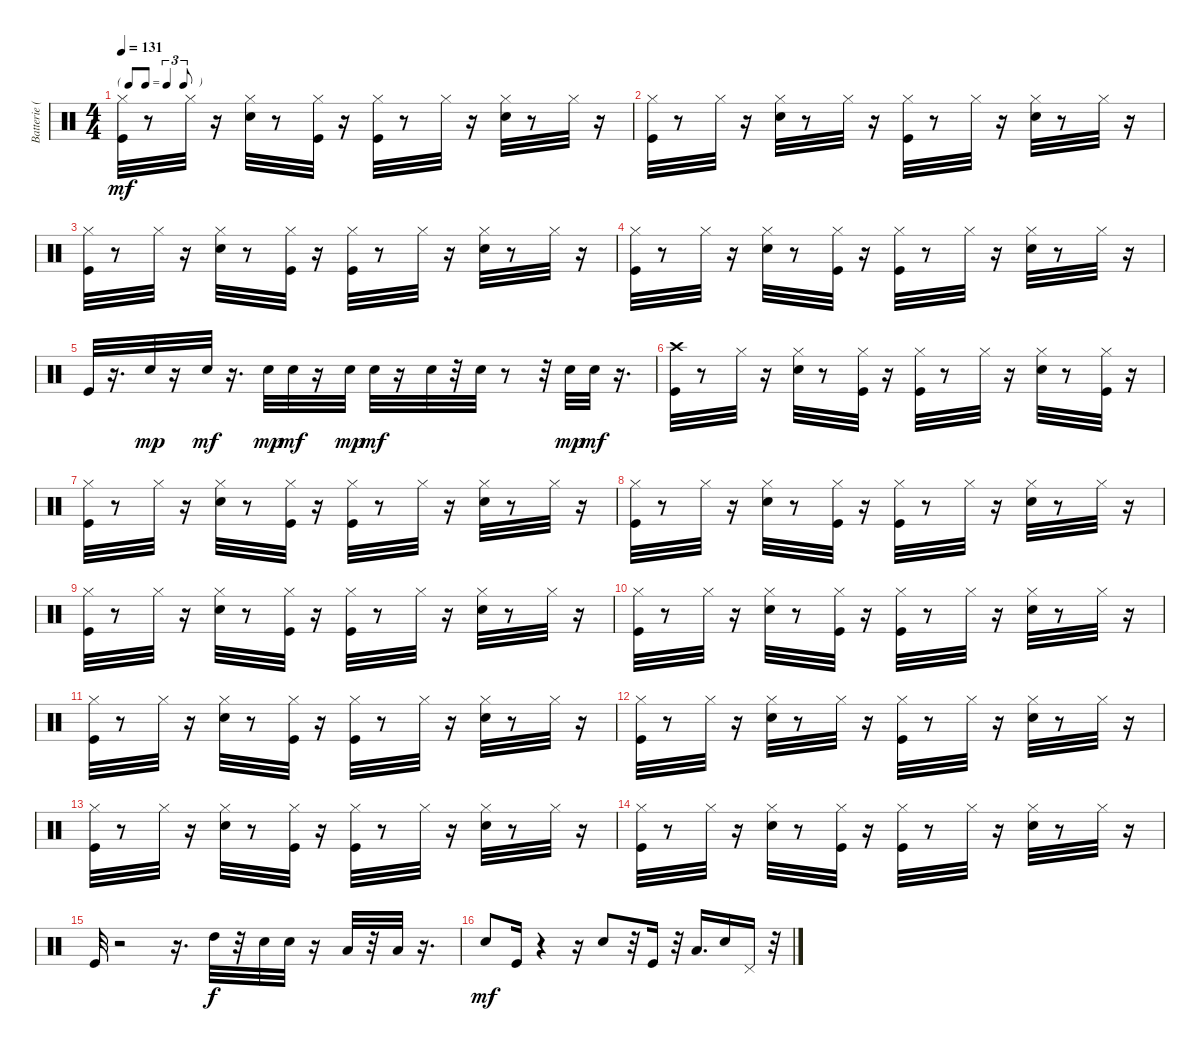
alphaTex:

\track ("Batterie (midi)" "Batterie (") {instrument percussion}
\staff {score}
\articulation defaults
\ts (4 4)
\tf triplet8th
\tempo 131
\clef neutral
\ks c
("Kick (hit)" "Hi-Hat (closed)").32{dy mf} r.8 "Hi-Hat (closed)".32 r.16 ("Electric Snare (hit)" "Hi-Hat (closed)").32 r.8 ("Kick (hit)" "Hi-Hat (closed)").32 r.16 ("Kick (hit)" "Hi-Hat (closed)").32 r.8 "Hi-Hat (closed)".32 r.16 ("Electric Snare (hit)" "Hi-Hat (closed)").32 r.8 "Hi-Hat (closed)".32 r.16 |
("Kick (hit)" "Hi-Hat (closed)").32 r.8 "Hi-Hat (closed)".32 r.16 ("Electric Snare (hit)" "Hi-Hat (closed)").32 r.8 "Hi-Hat (closed)".32 r.16 ("Kick (hit)" "Hi-Hat (closed)").32 r.8 "Hi-Hat (closed)".32 r.16 ("Electric Snare (hit)" "Hi-Hat (closed)").32 r.8 "Hi-Hat (closed)".32 r.16 |
("Kick (hit)" "Hi-Hat (closed)").32 r.8 "Hi-Hat (closed)".32 r.16 ("Electric Snare (hit)" "Hi-Hat (closed)").32 r.8 ("Kick (hit)" "Hi-Hat (closed)").32 r.16 ("Kick (hit)" "Hi-Hat (closed)").32 r.8 "Hi-Hat (closed)".32 r.16 ("Electric Snare (hit)" "Hi-Hat (closed)").32 r.8 "Hi-Hat (closed)".32 r.16 |
("Kick (hit)" "Hi-Hat (closed)").32 r.8 "Hi-Hat (closed)".32 r.16 ("Electric Snare (hit)" "Hi-Hat (closed)").32 r.8 ("Kick (hit)" "Hi-Hat (closed)").32 r.16 ("Kick (hit)" "Hi-Hat (closed)").32 r.8 "Hi-Hat (closed)".32 r.16 ("Electric Snare (hit)" "Hi-Hat (closed)").32 r.8 "Hi-Hat (closed)".32 r.16 |
"Kick (hit)".32 r.16{d} "Snare (hit) 2".32{dy mp} r.16 "Snare (hit) 2".32{dy mf} r.16{d} "Snare (hit) 2".32{dy mp} "Snare (hit) 2".32{dy mf} r.16 "Snare (hit) 2".32{dy mp} "Snare (hit) 2".32{dy mf} r.16 "Snare (hit) 2".32 r.32 "Snare (hit) 2".32 r.8 r.32 "Snare (hit) 2".32{dy mp} "Snare (hit) 2".32{dy mf} r.16{d} |
("Kick (hit)" "Crash high (hit)").32 r.8 "Hi-Hat (closed)".32 r.16 ("Electric Snare (hit)" "Hi-Hat (closed)").32 r.8 ("Kick (hit)" "Hi-Hat (closed)").32 r.16 ("Kick (hit)" "Hi-Hat (closed)").32 r.8 "Hi-Hat (closed)".32 r.16 ("Electric Snare (hit)" "Hi-Hat (closed)").32 r.8 ("Kick (hit)" "Hi-Hat (closed)").32 r.16 |
("Kick (hit)" "Hi-Hat (closed)").32 r.8 "Hi-Hat (closed)".32 r.16 ("Electric Snare (hit)" "Hi-Hat (closed)").32 r.8 ("Kick (hit)" "Hi-Hat (closed)").32 r.16 ("Kick (hit)" "Hi-Hat (closed)").32 r.8 "Hi-Hat (closed)".32 r.16 ("Electric Snare (hit)" "Hi-Hat (closed)").32 r.8 "Hi-Hat (closed)".32 r.16 |
("Kick (hit)" "Hi-Hat (closed)").32 r.8 "Hi-Hat (closed)".32 r.16 ("Electric Snare (hit)" "Hi-Hat (closed)").32 r.8 ("Kick (hit)" "Hi-Hat (closed)").32 r.16 ("Kick (hit)" "Hi-Hat (closed)").32 r.8 "Hi-Hat (closed)".32 r.16 ("Electric Snare (hit)" "Hi-Hat (closed)").32 r.8 "Hi-Hat (closed)".32 r.16 |
("Kick (hit)" "Hi-Hat (closed)").32 r.8 "Hi-Hat (closed)".32 r.16 ("Electric Snare (hit)" "Hi-Hat (closed)").32 r.8 ("Kick (hit)" "Hi-Hat (closed)").32 r.16 ("Kick (hit)" "Hi-Hat (closed)").32 r.8 "Hi-Hat (closed)".32 r.16 ("Electric Snare (hit)" "Hi-Hat (closed)").32 r.8 "Hi-Hat (closed)".32 r.16 |
("Kick (hit)" "Hi-Hat (closed)").32 r.8 "Hi-Hat (closed)".32 r.16 ("Electric Snare (hit)" "Hi-Hat (closed)").32 r.8 ("Kick (hit)" "Hi-Hat (closed)").32 r.16 ("Kick (hit)" "Hi-Hat (closed)").32 r.8 "Hi-Hat (closed)".32 r.16 ("Electric Snare (hit)" "Hi-Hat (closed)").32 r.8 "Hi-Hat (closed)".32 r.16 |
("Kick (hit)" "Hi-Hat (closed)").32 r.8 "Hi-Hat (closed)".32 r.16 ("Electric Snare (hit)" "Hi-Hat (closed)").32 r.8 ("Kick (hit)" "Hi-Hat (closed)").32 r.16 ("Kick (hit)" "Hi-Hat (closed)").32 r.8 "Hi-Hat (closed)".32 r.16 ("Electric Snare (hit)" "Hi-Hat (closed)").32 r.8 "Hi-Hat (closed)".32 r.16 |
("Kick (hit)" "Hi-Hat (closed)").32 r.8 "Hi-Hat (closed)".32 r.16 ("Electric Snare (hit)" "Hi-Hat (closed)").32 r.8 "Hi-Hat (closed)".32 r.16 ("Kick (hit)" "Hi-Hat (closed)").32 r.8 "Hi-Hat (closed)".32 r.16 ("Electric Snare (hit)" "Hi-Hat (closed)").32 r.8 "Hi-Hat (closed)".32 r.16 |
("Kick (hit)" "Hi-Hat (closed)").32 r.8 "Hi-Hat (closed)".32 r.16 ("Electric Snare (hit)" "Hi-Hat (closed)").32 r.8 ("Kick (hit)" "Hi-Hat (closed)").32 r.16 ("Kick (hit)" "Hi-Hat (closed)").32 r.8 "Hi-Hat (closed)".32 r.16 ("Electric Snare (hit)" "Hi-Hat (closed)").32 r.8 "Hi-Hat (closed)".32 r.16 |
("Kick (hit)" "Hi-Hat (closed)").32 r.8 "Hi-Hat (closed)".32 r.16 ("Electric Snare (hit)" "Hi-Hat (closed)").32 r.8 ("Kick (hit)" "Hi-Hat (closed)").32 r.16 ("Kick (hit)" "Hi-Hat (closed)").32 r.8 "Hi-Hat (closed)".32 r.16 ("Electric Snare (hit)" "Hi-Hat (closed)").32 r.8 "Hi-Hat (closed)".32 r.16 |
"Kick (hit)".32 r.2 r.16{d} "High Tom (hit)".32{dy f} r.32 "Electric Snare (hit)".32 "Electric Snare (hit)".32 r.16 "Low Tom (hit)".32 r.32 "Low Tom (hit)".32 r.16{d} |
"Electric Snare (hit)".8{dy mf} "Kick (hit)".16 r.4 r.16 "Electric Snare (hit)".8 r.32 "Kick (hit)".16 r.32 "Low Tom (hit)".16{d} "Electric Snare (hit)".16 "Pedal Hi-Hat (hit)".16 r.32
